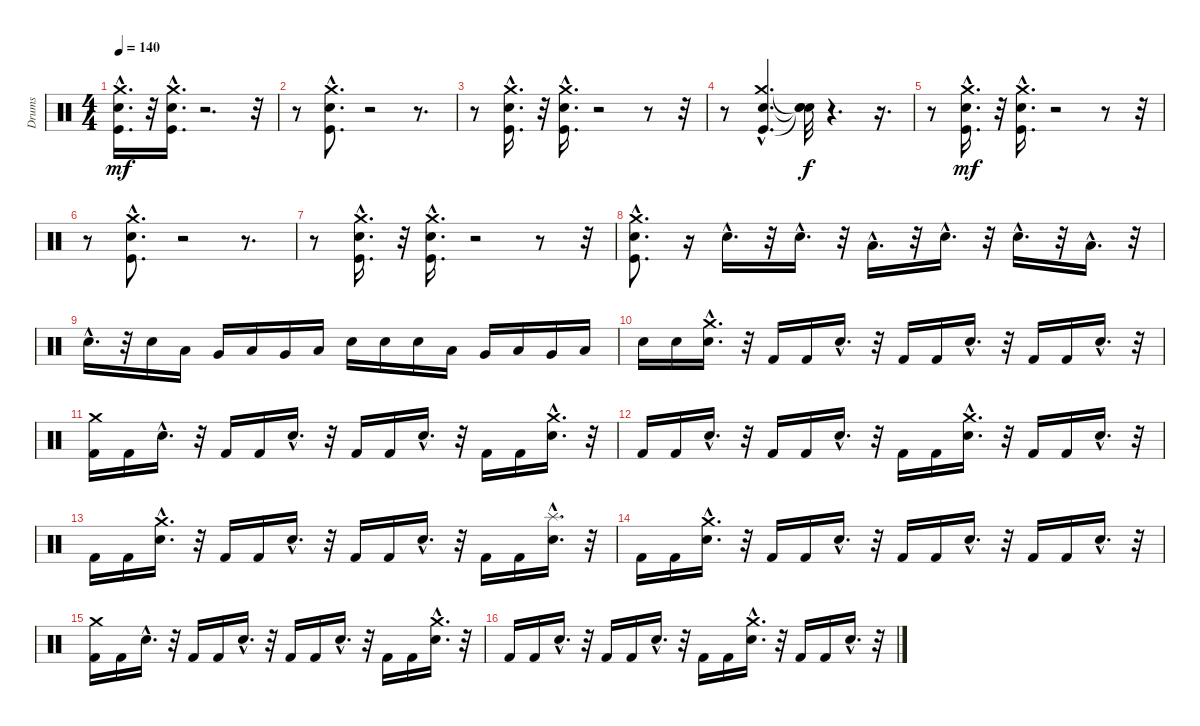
\track ("Drums" "Drums") {instrument percussion}
\staff {score}
\articulation defaults
\ts (4 4)
\tempo 140
\clef neutral
\ks c
("Snare (hit) 2"{hac} "Kick (hit)"{hac} "Crash medium (hit)"{hac}).16{d dy mf} r.32 ("Snare (hit) 2"{hac} "Crash medium (hit)"{hac} "Kick (hit)"{hac}).16{d} r.2{d} r.32 |
r.8 ("Crash medium (hit)"{hac} "Kick (hit)"{hac} "Snare (hit) 2"{hac}).8{d} r.2 r.8{d} |
r.8 ("Snare (hit) 2"{hac} "Crash medium (hit)"{hac} "Kick (hit)"{hac}).16{d} r.32 ("Crash medium (hit)"{hac} "Kick (hit)"{hac} "Snare (hit) 2"{hac}).16{d} r.2 r.8 r.32 |
r.8 ("Crash medium (hit)"{hac} "Electric Snare (hit)"{hac} "Kick (hit)"{hac}).4{d} ("Snare (hit)"{t} "Snare (hit)"{t} "Snare (hit)"{t}).32{dy f} r.4{d} r.16{d} |
r.8 ("Crash medium (hit)"{hac} "Kick (hit)"{hac} "Snare (hit) 2"{hac}).16{d dy mf} r.32 ("Snare (hit) 2"{hac} "Crash medium (hit)"{hac} "Kick (hit)"{hac}).16{d} r.2 r.8 r.32 |
r.8 ("Kick (hit)"{hac} "Snare (hit) 2"{hac} "Crash medium (hit)"{hac}).8{d} r.2 r.8{d} |
r.8 ("Kick (hit)"{hac} "Crash medium (hit)"{hac} "Snare (hit) 2"{hac}).16{d} r.32 ("Crash medium (hit)"{hac} "Snare (hit) 2"{hac} "Kick (hit)"{hac}).16{d} r.2 r.8 r.32 |
("Kick (hit)"{hac} "Crash medium (hit)"{hac} "Snare (hit) 2"{hac}).8{d} r.16 "Snare (hit) 2"{hac}.16{d} r.32 "Electric Snare (hit)"{hac}.16{d} r.32 "Low Floor Tom (hit)"{hac}.16{d} r.32 "Snare (hit) 2"{hac}.16{d} r.32 "Electric Snare (hit)"{hac}.16{d} r.32 "Low Floor Tom (hit)"{hac}.16{d} r.32 |
"Snare (hit) 2"{hac}.16{d} r.32 "Electric Snare (hit)".16 "Low Floor Tom (hit)".16 "Very Low Tom (hit)".16 "Low Tom (hit)".16 "Very Low Tom (hit)".16 "Low Floor Tom (hit)".16 "Electric Snare (hit)".16 "Snare (hit) 2".16 "Electric Snare (hit)".16 "Low Floor Tom (hit)".16 "Very Low Tom (hit)".16 "Low Tom (hit)".16 "Very Low Tom (hit)".16 "Low Floor Tom (hit)".16 |
"Electric Snare (hit)".16 "Snare (hit) 2".16 ("Crash medium (hit)"{hac} "Electric Snare (hit)"{hac}).16{d} r.32 "Kick (hit) 2".16 "Kick (hit) 2".16 "Electric Snare (hit)"{hac}.16{d} r.32 "Kick (hit) 2".16 "Kick (hit) 2".16 "Electric Snare (hit)"{hac}.16{d} r.32 "Kick (hit) 2".16 "Kick (hit) 2".16 "Electric Snare (hit)"{hac}.16{d} r.32 |
("Crash medium (hit)" "Kick (hit) 2").16 "Kick (hit) 2".16 "Electric Snare (hit)"{hac}.16{d} r.32 "Kick (hit) 2".16 "Kick (hit) 2".16 "Electric Snare (hit)"{hac}.16{d} r.32 "Kick (hit) 2".16 "Kick (hit) 2".16 "Electric Snare (hit)"{hac}.16{d} r.32 "Kick (hit) 2".16 "Kick (hit) 2".16 ("Crash medium (hit)"{hac} "Electric Snare (hit)"{hac}).16{d} r.32 |
"Kick (hit) 2".16 "Kick (hit) 2".16 "Electric Snare (hit)"{hac}.16{d} r.32 "Kick (hit) 2".16 "Kick (hit) 2".16 "Electric Snare (hit)"{hac}.16{d} r.32 "Kick (hit) 2".16 "Kick (hit) 2".16 ("Electric Snare (hit)"{hac} "Crash medium (hit)"{hac}).16{d} r.32 "Kick (hit) 2".16 "Kick (hit) 2".16 "Electric Snare (hit)"{hac}.16{d} r.32 |
"Kick (hit) 2".16 "Kick (hit) 2".16 ("Crash medium (hit)"{hac} "Snare (hit) 2"{hac}).16{d} r.32 "Kick (hit) 2".16 "Kick (hit) 2".16 "Snare (hit) 2"{hac}.16{d} r.32 "Kick (hit) 2".16 "Kick (hit) 2".16 "Snare (hit) 2"{hac}.16{d} r.32 "Kick (hit) 2".16 "Kick (hit) 2".16 ("Splash (hit)"{hac} "Snare (hit) 2"{hac}).16{d} r.32 |
"Kick (hit) 2".16 "Kick (hit) 2".16 ("Crash medium (hit)"{hac} "Electric Snare (hit)"{hac}).16{d} r.32 "Kick (hit) 2".16 "Kick (hit) 2".16 "Electric Snare (hit)"{hac}.16{d} r.32 "Kick (hit) 2".16 "Kick (hit) 2".16 "Electric Snare (hit)"{hac}.16{d} r.32 "Kick (hit) 2".16 "Kick (hit) 2".16 "Electric Snare (hit)"{hac}.16{d} r.32 |
("Crash medium (hit)" "Kick (hit) 2").16 "Kick (hit) 2".16 "Electric Snare (hit)"{hac}.16{d} r.32 "Kick (hit) 2".16 "Kick (hit) 2".16 "Electric Snare (hit)"{hac}.16{d} r.32 "Kick (hit) 2".16 "Kick (hit) 2".16 "Electric Snare (hit)"{hac}.16{d} r.32 "Kick (hit) 2".16 "Kick (hit) 2".16 ("Crash medium (hit)"{hac} "Electric Snare (hit)"{hac}).16{d} r.32 |
"Kick (hit) 2".16 "Kick (hit) 2".16 "Electric Snare (hit)"{hac}.16{d} r.32 "Kick (hit) 2".16 "Kick (hit) 2".16 "Electric Snare (hit)"{hac}.16{d} r.32 "Kick (hit) 2".16 "Kick (hit) 2".16 ("Crash medium (hit)"{hac} "Electric Snare (hit)"{hac}).16{d} r.32 "Kick (hit) 2".16 "Kick (hit) 2".16 "Electric Snare (hit)"{hac}.16{d} r.32
